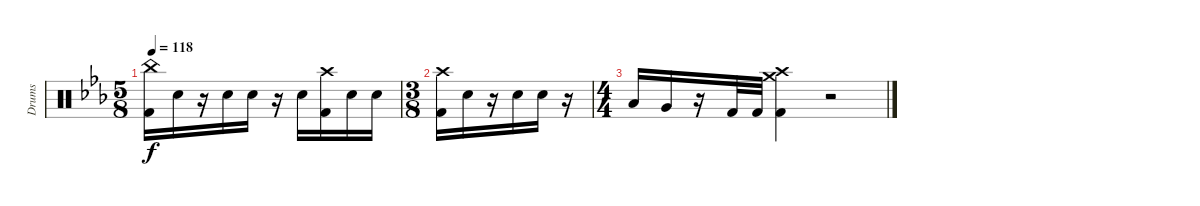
\track ("Drums" "Drums") {instrument percussion}
\staff {score}
\articulation defaults
\ts (5 8)
\tempo 118
\clef neutral
\ks cminor
("Kick (hit) 2" "China (hit)").16{dy f} "Electric Snare (hit)".16 r.16 "Electric Snare (hit)".16 "Electric Snare (hit)".16 r.16 "Electric Snare (hit)".16 ("Kick (hit) 2" "Crash high (hit)").16 "Electric Snare (hit)".16 "Electric Snare (hit)".16 |
\ts (3 8)
("Kick (hit) 2" "Crash high (hit)").16 "Electric Snare (hit)".16 r.16 "Electric Snare (hit)".16 "Electric Snare (hit)".16 r.16 |
\ts (4 4)
"Low Tom (hit)".16 "Very Low Tom (hit)".16 r.16 "Kick (hit) 2".32 "Kick (hit) 2".32 ("Kick (hit) 2" "Crash medium (hit)" "Crash high (hit)").4 r.2
